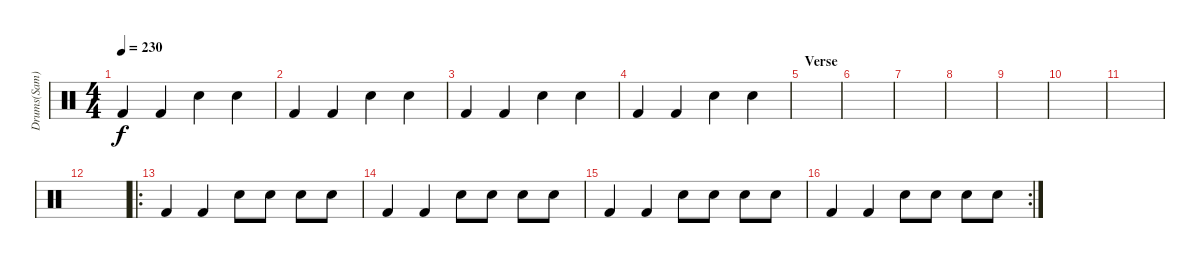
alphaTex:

\track ("Drums(Sam)" "Drums(Sam)") {instrument percussion}
\staff {score}
\articulation defaults
\ts (4 4)
\tempo 230
\clef neutral
\ks c "Kick (hit) 2".4{dy f} "Kick (hit) 2".4 "Snare (hit) 2".4 "Snare (hit) 2".4
|
"Kick (hit) 2".4 "Kick (hit) 2".4 "Snare (hit) 2".4 "Snare (hit) 2".4 |
"Kick (hit) 2".4 "Kick (hit) 2".4 "Snare (hit) 2".4 "Snare (hit) 2".4 |
"Kick (hit) 2".4 "Kick (hit) 2".4 "Snare (hit) 2".4 "Snare (hit) 2".4 |
\section ("" "Verse")
|
|
|
|
|
|
|
|
\ro "Kick (hit) 2".4 "Kick (hit) 2".4 "Snare (hit) 2".8 "Snare (hit) 2".8 "Snare (hit) 2".8 "Snare (hit) 2".8
|
"Kick (hit) 2".4 "Kick (hit) 2".4 "Snare (hit) 2".8 "Snare (hit) 2".8 "Snare (hit) 2".8 "Snare (hit) 2".8 |
"Kick (hit) 2".4 "Kick (hit) 2".4 "Snare (hit) 2".8 "Snare (hit) 2".8 "Snare (hit) 2".8 "Snare (hit) 2".8 |
\rc 2 "Kick (hit) 2".4 "Kick (hit) 2".4 "Snare (hit) 2".8 "Snare (hit) 2".8 "Snare (hit) 2".8 "Snare (hit) 2".8
